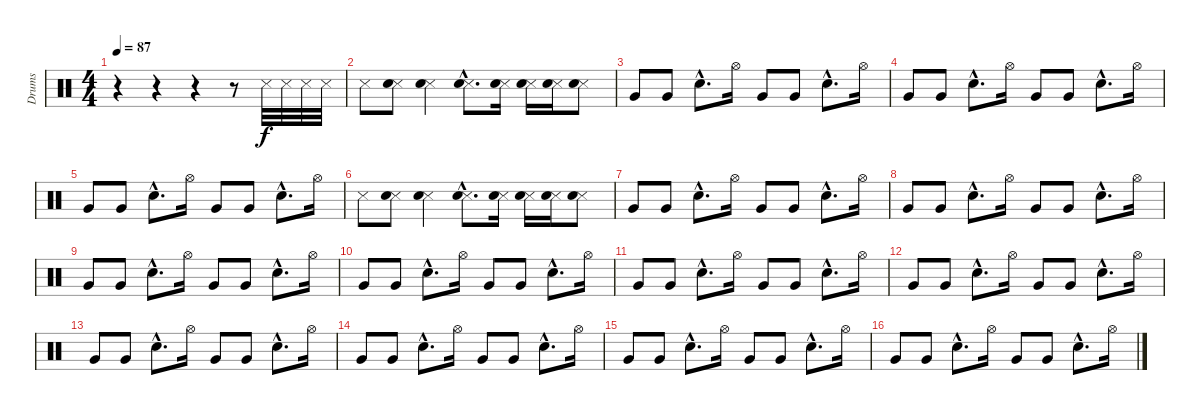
\track ("Drums" "Drums") {instrument percussion}
\staff {score}
\articulation defaults
\ts (4 4)
\tempo 87
\clef neutral
\ks c
r.4{dy f} r.4 r.4 r.8 "Snare (side stick) 3".32 "Snare (side stick) 3".32 "Snare (side stick) 3".32 "Snare (side stick) 3".32 |
"Snare (side stick) 3".8 ("Snare (side stick) 3" "Snare (hit) 2").8 ("Snare (side stick) 3" "Snare (hit) 2").4 ("Snare (side stick) 3"{hac} "Snare (hit) 2"{hac}).8{d} ("Snare (side stick) 3" "Snare (hit) 2").16 ("Snare (side stick) 3" "Snare (hit) 2").16 ("Snare (side stick) 3" "Snare (hit) 2").16 ("Snare (side stick) 3" "Snare (hit) 2").8 |
"Very Low Tom (hit)".8 "Very Low Tom (hit)".8 "Snare (hit) 2"{hac}.8{d} "Hi-Hat (open)".16 "Very Low Tom (hit)".8 "Very Low Tom (hit)".8 "Snare (hit) 2"{hac}.8{d} "Hi-Hat (open)".16 |
"Very Low Tom (hit)".8 "Very Low Tom (hit)".8 "Snare (hit) 2"{hac}.8{d} "Hi-Hat (open)".16 "Very Low Tom (hit)".8 "Very Low Tom (hit)".8 "Snare (hit) 2"{hac}.8{d} "Hi-Hat (open)".16 |
"Very Low Tom (hit)".8 "Very Low Tom (hit)".8 "Snare (hit) 2"{hac}.8{d} "Hi-Hat (open)".16 "Very Low Tom (hit)".8 "Very Low Tom (hit)".8 "Snare (hit) 2"{hac}.8{d} "Hi-Hat (open)".16 |
"Snare (side stick) 3".8 ("Snare (side stick) 3" "Snare (hit) 2").8 ("Snare (side stick) 3" "Snare (hit) 2").4 ("Snare (side stick) 3"{hac} "Snare (hit) 2"{hac}).8{d} ("Snare (side stick) 3" "Snare (hit) 2").16 ("Snare (side stick) 3" "Snare (hit) 2").16 ("Snare (side stick) 3" "Snare (hit) 2").16 ("Snare (side stick) 3" "Snare (hit) 2").8 |
"Very Low Tom (hit)".8 "Very Low Tom (hit)".8 "Snare (hit) 2"{hac}.8{d} "Hi-Hat (open)".16 "Very Low Tom (hit)".8 "Very Low Tom (hit)".8 "Snare (hit) 2"{hac}.8{d} "Hi-Hat (open)".16 |
"Very Low Tom (hit)".8 "Very Low Tom (hit)".8 "Snare (hit) 2"{hac}.8{d} "Hi-Hat (open)".16 "Very Low Tom (hit)".8 "Very Low Tom (hit)".8 "Snare (hit) 2"{hac}.8{d} "Hi-Hat (open)".16 |
"Very Low Tom (hit)".8 "Very Low Tom (hit)".8 "Snare (hit) 2"{hac}.8{d} "Hi-Hat (open)".16 "Very Low Tom (hit)".8 "Very Low Tom (hit)".8 "Snare (hit) 2"{hac}.8{d} "Hi-Hat (open)".16 |
"Very Low Tom (hit)".8 "Very Low Tom (hit)".8 "Snare (hit) 2"{hac}.8{d} "Hi-Hat (open)".16 "Very Low Tom (hit)".8 "Very Low Tom (hit)".8 "Snare (hit) 2"{hac}.8{d} "Hi-Hat (open)".16 |
"Very Low Tom (hit)".8 "Very Low Tom (hit)".8 "Snare (hit) 2"{hac}.8{d} "Hi-Hat (open)".16 "Very Low Tom (hit)".8 "Very Low Tom (hit)".8 "Snare (hit) 2"{hac}.8{d} "Hi-Hat (open)".16 |
"Very Low Tom (hit)".8 "Very Low Tom (hit)".8 "Snare (hit) 2"{hac}.8{d} "Hi-Hat (open)".16 "Very Low Tom (hit)".8 "Very Low Tom (hit)".8 "Snare (hit) 2"{hac}.8{d} "Hi-Hat (open)".16 |
"Very Low Tom (hit)".8 "Very Low Tom (hit)".8 "Snare (hit) 2"{hac}.8{d} "Hi-Hat (open)".16 "Very Low Tom (hit)".8 "Very Low Tom (hit)".8 "Snare (hit) 2"{hac}.8{d} "Hi-Hat (open)".16 |
"Very Low Tom (hit)".8 "Very Low Tom (hit)".8 "Snare (hit) 2"{hac}.8{d} "Hi-Hat (open)".16 "Very Low Tom (hit)".8 "Very Low Tom (hit)".8 "Snare (hit) 2"{hac}.8{d} "Hi-Hat (open)".16 |
"Very Low Tom (hit)".8 "Very Low Tom (hit)".8 "Snare (hit) 2"{hac}.8{d} "Hi-Hat (open)".16 "Very Low Tom (hit)".8 "Very Low Tom (hit)".8 "Snare (hit) 2"{hac}.8{d} "Hi-Hat (open)".16 |
"Very Low Tom (hit)".8 "Very Low Tom (hit)".8 "Snare (hit) 2"{hac}.8{d} "Hi-Hat (open)".16 "Very Low Tom (hit)".8 "Very Low Tom (hit)".8 "Snare (hit) 2"{hac}.8{d} "Hi-Hat (open)".16
